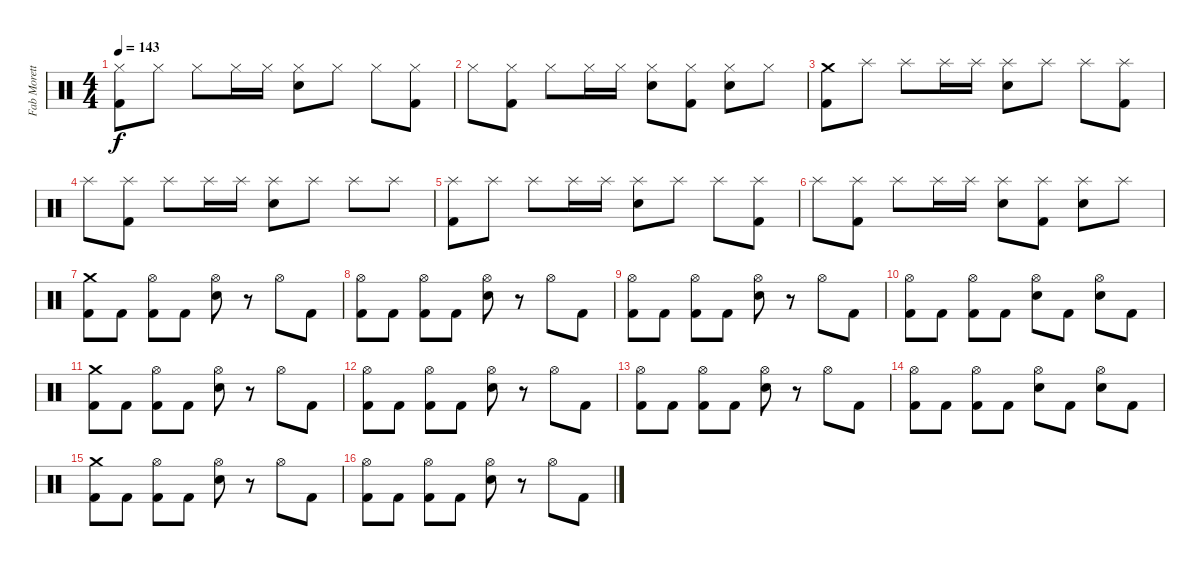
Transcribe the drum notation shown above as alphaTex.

\track ("Fab Moretti" "Fab Morett") {instrument percussion}
\staff {score}
\articulation defaults
\ts (4 4)
\tempo 143
\clef neutral
\ks c
("Hi-Hat (closed)" "Kick (hit) 2").8{dy f} "Hi-Hat (closed)".8 "Hi-Hat (closed)".8 "Hi-Hat (closed)".16 "Hi-Hat (closed)".16 ("Hi-Hat (closed)" "Electric Snare (hit)").8 "Hi-Hat (closed)".8 "Hi-Hat (closed)".8 ("Hi-Hat (closed)" "Kick (hit) 2").8 |
"Hi-Hat (closed)".8 ("Hi-Hat (closed)" "Kick (hit) 2").8 "Hi-Hat (closed)".8 "Hi-Hat (closed)".16 "Hi-Hat (closed)".16 ("Hi-Hat (closed)" "Electric Snare (hit)").8 ("Hi-Hat (closed)" "Kick (hit) 2").8 ("Hi-Hat (closed)" "Electric Snare (hit)").8 "Hi-Hat (closed)".8 |
("Crash medium (hit)" "Kick (hit) 2").8 "Splash (hit)".8 "Splash (hit)".8 "Splash (hit)".16 "Splash (hit)".16 ("Splash (hit)" "Electric Snare (hit)").8 "Splash (hit)".8 "Splash (hit)".8 ("Splash (hit)" "Kick (hit) 2").8 |
"Splash (hit)".8 ("Splash (hit)" "Kick (hit) 2").8 "Splash (hit)".8 "Splash (hit)".16 "Splash (hit)".16 ("Splash (hit)" "Electric Snare (hit)").8 "Splash (hit)".8 "Splash (hit)".8 "Splash (hit)".8 |
("Splash (hit)" "Kick (hit) 2").8 "Splash (hit)".8 "Splash (hit)".8 "Splash (hit)".16 "Splash (hit)".16 ("Splash (hit)" "Electric Snare (hit)").8 "Splash (hit)".8 "Splash (hit)".8 ("Splash (hit)" "Kick (hit) 2").8 |
"Splash (hit)".8 ("Splash (hit)" "Kick (hit) 2").8 "Splash (hit)".8 "Splash (hit)".16 "Splash (hit)".16 ("Splash (hit)" "Electric Snare (hit)").8 ("Splash (hit)" "Kick (hit) 2").8 ("Splash (hit)" "Electric Snare (hit)").8 "Splash (hit)".8 |
("Crash medium (hit)" "Kick (hit) 2").8 "Kick (hit) 2".8 ("Hi-Hat (open)" "Kick (hit) 2").8 "Kick (hit) 2".8 ("Hi-Hat (open)" "Electric Snare (hit)").8 r.8 "Hi-Hat (open)".8 "Kick (hit) 2".8 |
("Hi-Hat (open)" "Kick (hit) 2").8 "Kick (hit) 2".8 ("Hi-Hat (open)" "Kick (hit) 2").8 "Kick (hit) 2".8 ("Hi-Hat (open)" "Electric Snare (hit)").8 r.8 "Hi-Hat (open)".8 "Kick (hit) 2".8 |
("Hi-Hat (open)" "Kick (hit) 2").8 "Kick (hit) 2".8 ("Hi-Hat (open)" "Kick (hit) 2").8 "Kick (hit) 2".8 ("Hi-Hat (open)" "Electric Snare (hit)").8 r.8 "Hi-Hat (open)".8 "Kick (hit) 2".8 |
("Hi-Hat (open)" "Kick (hit) 2").8 "Kick (hit) 2".8 ("Hi-Hat (open)" "Kick (hit) 2").8 "Kick (hit) 2".8 ("Hi-Hat (open)" "Electric Snare (hit)").8 "Kick (hit) 2".8 ("Hi-Hat (open)" "Electric Snare (hit)").8 "Kick (hit) 2".8 |
("Crash medium (hit)" "Kick (hit) 2").8 "Kick (hit) 2".8 ("Hi-Hat (open)" "Kick (hit) 2").8 "Kick (hit) 2".8 ("Hi-Hat (open)" "Electric Snare (hit)").8 r.8 "Hi-Hat (open)".8 "Kick (hit) 2".8 |
("Hi-Hat (open)" "Kick (hit) 2").8 "Kick (hit) 2".8 ("Hi-Hat (open)" "Kick (hit) 2").8 "Kick (hit) 2".8 ("Hi-Hat (open)" "Electric Snare (hit)").8 r.8 "Hi-Hat (open)".8 "Kick (hit) 2".8 |
("Hi-Hat (open)" "Kick (hit) 2").8 "Kick (hit) 2".8 ("Hi-Hat (open)" "Kick (hit) 2").8 "Kick (hit) 2".8 ("Hi-Hat (open)" "Electric Snare (hit)").8 r.8 "Hi-Hat (open)".8 "Kick (hit) 2".8 |
("Hi-Hat (open)" "Kick (hit) 2").8 "Kick (hit) 2".8 ("Hi-Hat (open)" "Kick (hit) 2").8 "Kick (hit) 2".8 ("Hi-Hat (open)" "Electric Snare (hit)").8 "Kick (hit) 2".8 ("Hi-Hat (open)" "Electric Snare (hit)").8 "Kick (hit) 2".8 |
("Crash medium (hit)" "Kick (hit) 2").8 "Kick (hit) 2".8 ("Hi-Hat (open)" "Kick (hit) 2").8 "Kick (hit) 2".8 ("Hi-Hat (open)" "Electric Snare (hit)").8 r.8 "Hi-Hat (open)".8 "Kick (hit) 2".8 |
("Hi-Hat (open)" "Kick (hit) 2").8 "Kick (hit) 2".8 ("Hi-Hat (open)" "Kick (hit) 2").8 "Kick (hit) 2".8 ("Hi-Hat (open)" "Electric Snare (hit)").8 r.8 "Hi-Hat (open)".8 "Kick (hit) 2".8
